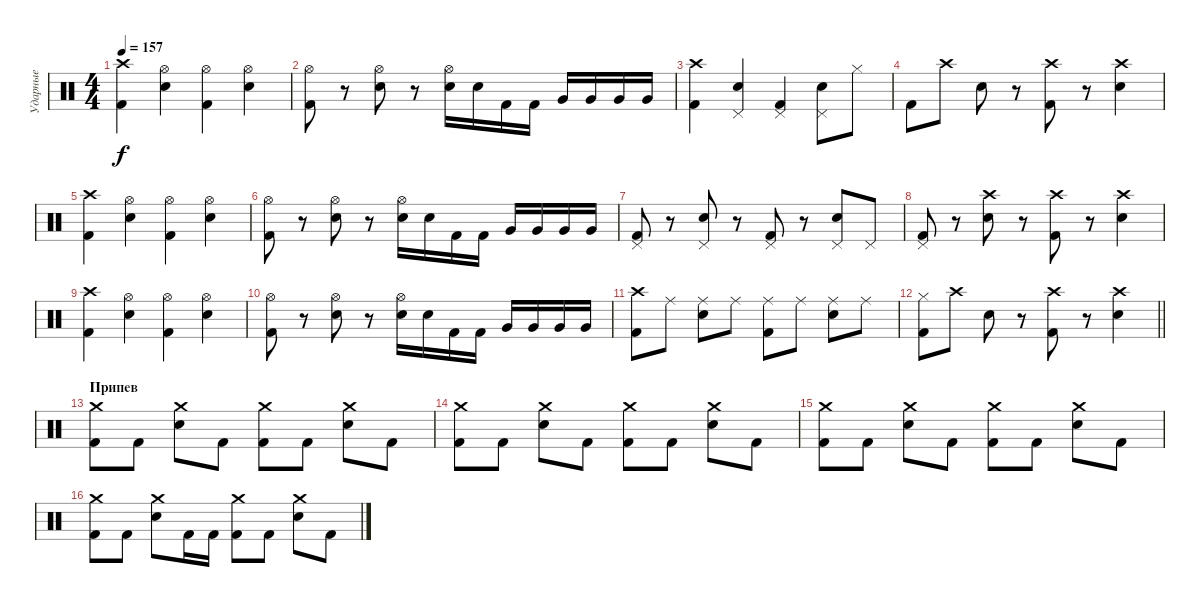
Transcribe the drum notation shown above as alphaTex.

\track ("Ударные" "Ударные") {instrument percussion}
\staff {score}
\articulation defaults
\ts (4 4)
\tempo 157
\clef neutral
\ks c
("Kick (hit) 2" "Crash high (hit)").4{dy f} ("Electric Snare (hit)" "Hi-Hat (open)").4 ("Kick (hit) 2" "Hi-Hat (open)").4 ("Electric Snare (hit)" "Hi-Hat (open)").4 |
("Kick (hit) 2" "Hi-Hat (open)").8 r.8 ("Electric Snare (hit)" "Hi-Hat (open)").8 r.8 ("Electric Snare (hit)" "Hi-Hat (open)").16 "Electric Snare (hit)".16 "Kick (hit) 2".16 "Kick (hit) 2".16 "Very Low Tom (hit)".16 "Very Low Tom (hit)".16 "Very Low Tom (hit)".16 "Very Low Tom (hit)".16 |
("Kick (hit) 2" "Crash high (hit)").4 ("Electric Snare (hit)" "Pedal Hi-Hat (hit)").4 ("Kick (hit) 2" "Pedal Hi-Hat (hit)").4 ("Electric Snare (hit)" "Pedal Hi-Hat (hit)").8 "Hi-Hat (closed)".8 |
"Kick (hit) 2".8 "Crash high (hit)".8 "Electric Snare (hit)".8 r.8 ("Kick (hit) 2" "Crash high (hit)").8 r.8 ("Electric Snare (hit)" "Crash high (hit)").4 |
("Kick (hit) 2" "Crash high (hit)").4 ("Electric Snare (hit)" "Hi-Hat (open)").4 ("Kick (hit) 2" "Hi-Hat (open)").4 ("Electric Snare (hit)" "Hi-Hat (open)").4 |
("Kick (hit) 2" "Hi-Hat (open)").8 r.8 ("Electric Snare (hit)" "Hi-Hat (open)").8 r.8 ("Electric Snare (hit)" "Hi-Hat (open)").16 "Electric Snare (hit)".16 "Kick (hit) 2".16 "Kick (hit) 2".16 "Very Low Tom (hit)".16 "Very Low Tom (hit)".16 "Very Low Tom (hit)".16 "Very Low Tom (hit)".16 |
("Kick (hit) 2" "Pedal Hi-Hat (hit)").8 r.8 ("Electric Snare (hit)" "Pedal Hi-Hat (hit)").8 r.8 ("Kick (hit) 2" "Pedal Hi-Hat (hit)").8 r.8 ("Electric Snare (hit)" "Pedal Hi-Hat (hit)").8 "Pedal Hi-Hat (hit)".8 |
("Kick (hit) 2" "Pedal Hi-Hat (hit)").8 r.8 ("Electric Snare (hit)" "Crash high (hit)").8 r.8 ("Kick (hit) 2" "Crash high (hit)").8 r.8 ("Electric Snare (hit)" "Crash high (hit)").4 |
("Kick (hit) 2" "Crash high (hit)").4 ("Electric Snare (hit)" "Hi-Hat (open)").4 ("Kick (hit) 2" "Hi-Hat (open)").4 ("Electric Snare (hit)" "Hi-Hat (open)").4 |
("Kick (hit) 2" "Hi-Hat (open)").8 r.8 ("Electric Snare (hit)" "Hi-Hat (open)").8 r.8 ("Electric Snare (hit)" "Hi-Hat (open)").16 "Electric Snare (hit)".16 "Kick (hit) 2".16 "Kick (hit) 2".16 "Very Low Tom (hit)".16 "Very Low Tom (hit)".16 "Very Low Tom (hit)".16 "Very Low Tom (hit)".16 |
("Kick (hit) 2" "Crash high (hit)").8 "Ride (middle)".8 ("Electric Snare (hit)" "Ride (middle)").8 "Ride (middle)".8 ("Kick (hit) 2" "Ride (middle)").8 "Ride (middle)".8 ("Electric Snare (hit)" "Ride (middle)").8 "Ride (middle)".8 |
\barLineRight lightlight
("Kick (hit) 2" "Hi-Hat (closed)").8 "Crash high (hit)".8 "Electric Snare (hit)".8 r.8 ("Kick (hit) 2" "Crash high (hit)").8 r.8 ("Electric Snare (hit)" "Crash high (hit)").4 |
\section ("" "Припев")
("Kick (hit) 2" "Crash medium (hit)").8 "Kick (hit) 2".8 ("Snare (hit) 2" "Crash medium (hit)").8 "Kick (hit) 2".8 ("Kick (hit) 2" "Crash medium (hit)").8 "Kick (hit) 2".8 ("Snare (hit) 2" "Crash medium (hit)").8 "Kick (hit) 2".8 |
("Kick (hit) 2" "Crash medium (hit)").8 "Kick (hit) 2".8 ("Snare (hit) 2" "Crash medium (hit)").8 "Kick (hit) 2".8 ("Kick (hit) 2" "Crash medium (hit)").8 "Kick (hit) 2".8 ("Snare (hit) 2" "Crash medium (hit)").8 "Kick (hit) 2".8 |
("Kick (hit) 2" "Crash medium (hit)").8 "Kick (hit) 2".8 ("Snare (hit) 2" "Crash medium (hit)").8 "Kick (hit) 2".8 ("Kick (hit) 2" "Crash medium (hit)").8 "Kick (hit) 2".8 ("Snare (hit) 2" "Crash medium (hit)").8 "Kick (hit) 2".8 |
("Kick (hit) 2" "Crash medium (hit)").8 "Kick (hit) 2".8 ("Snare (hit) 2" "Crash medium (hit)").8 "Kick (hit) 2".16 "Kick (hit) 2".16 ("Kick (hit) 2" "Crash medium (hit)").8 "Kick (hit) 2".8 ("Snare (hit) 2" "Crash medium (hit)").8 "Kick (hit) 2".8
